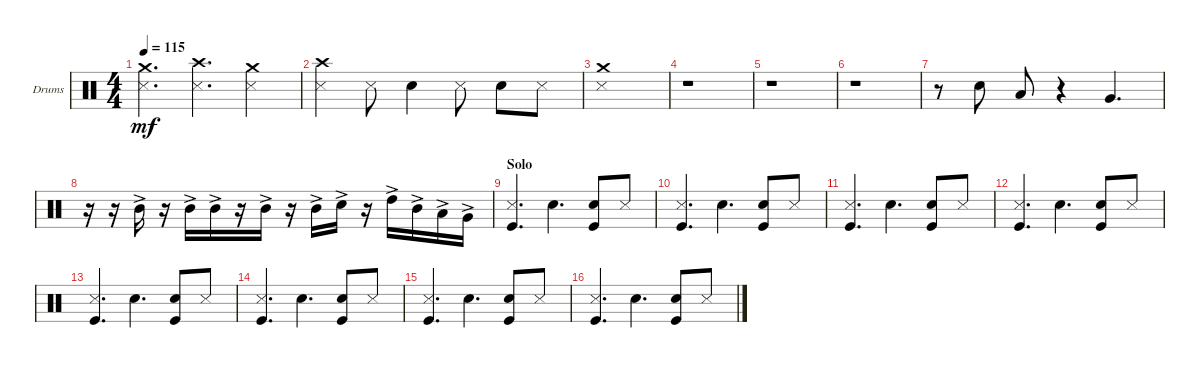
\defaultSystemsLayout 4
\bracketExtendMode groupsimilarinstruments
\firstSystemTrackNameOrientation horizontal
\otherSystemsTrackNameOrientation horizontal
\track ("Drumkit" "Drums") {instrument percussion}
\staff {score}
\articulation defaults
\ts (4 4)
\tempo 115
\clef neutral
\ks c
("Crash medium (hit)" "Snare (side stick) 3").4{d dy mf} ("Crash high (hit)" "Snare (side stick) 3").4{d} ("Crash medium (hit)" "Snare (side stick) 3").4 |
("Crash high (hit)" "Snare (side stick) 3").4 "Snare (side stick) 3".8 "Snare (hit) 2".4 "Snare (side stick) 3".8 "Snare (hit) 2".8 "Snare (side stick) 3".8 |
("Snare (side stick) 3" "Crash medium (hit)").1 |
r.1 |
r.1 |
r.1 |
r.8 "Snare (hit) 2".8 "Low Tom (hit)".8 r.4 "Very Low Tom (hit)".4{d} |
r.16 r.16 "Mid Tom (hit)"{ac}.16 r.16 "Mid Tom (hit)"{ac}.16 "Mid Tom (hit)"{ac}.16 r.16 "Mid Tom (hit)"{ac}.16 r.16 "Mid Tom (hit)"{ac}.16 "Snare (hit) 2"{ac}.16 r.16 "High Tom (hit)"{ac}.16 "Mid Tom (hit)"{ac}.16 "Low Tom (hit)"{ac}.16 "Very Low Tom (hit)"{ac}.16 |
\section ("" "Solo")
("Snare (side stick) 3" "Kick (hit)").4{d} "Snare (hit) 2".4{d} ("Snare (hit) 2" "Kick (hit)").8 "Snare (side stick) 3".8 |
("Snare (side stick) 3" "Kick (hit)").4{d} "Snare (hit) 2".4{d} ("Snare (hit) 2" "Kick (hit)").8 "Snare (side stick) 3".8 |
("Snare (side stick) 3" "Kick (hit)").4{d} "Snare (hit) 2".4{d} ("Snare (hit) 2" "Kick (hit)").8 "Snare (side stick) 3".8 |
("Snare (side stick) 3" "Kick (hit)").4{d} "Snare (hit) 2".4{d} ("Snare (hit) 2" "Kick (hit)").8 "Snare (side stick) 3".8 |
("Snare (side stick) 3" "Kick (hit)").4{d} "Snare (hit) 2".4{d} ("Snare (hit) 2" "Kick (hit)").8 "Snare (side stick) 3".8 |
("Snare (side stick) 3" "Kick (hit)").4{d} "Snare (hit) 2".4{d} ("Snare (hit) 2" "Kick (hit)").8 "Snare (side stick) 3".8 |
("Snare (side stick) 3" "Kick (hit)").4{d} "Snare (hit) 2".4{d} ("Snare (hit) 2" "Kick (hit)").8 "Snare (side stick) 3".8 |
("Snare (side stick) 3" "Kick (hit)").4{d} "Snare (hit) 2".4{d} ("Snare (hit) 2" "Kick (hit)").8 "Snare (side stick) 3".8
